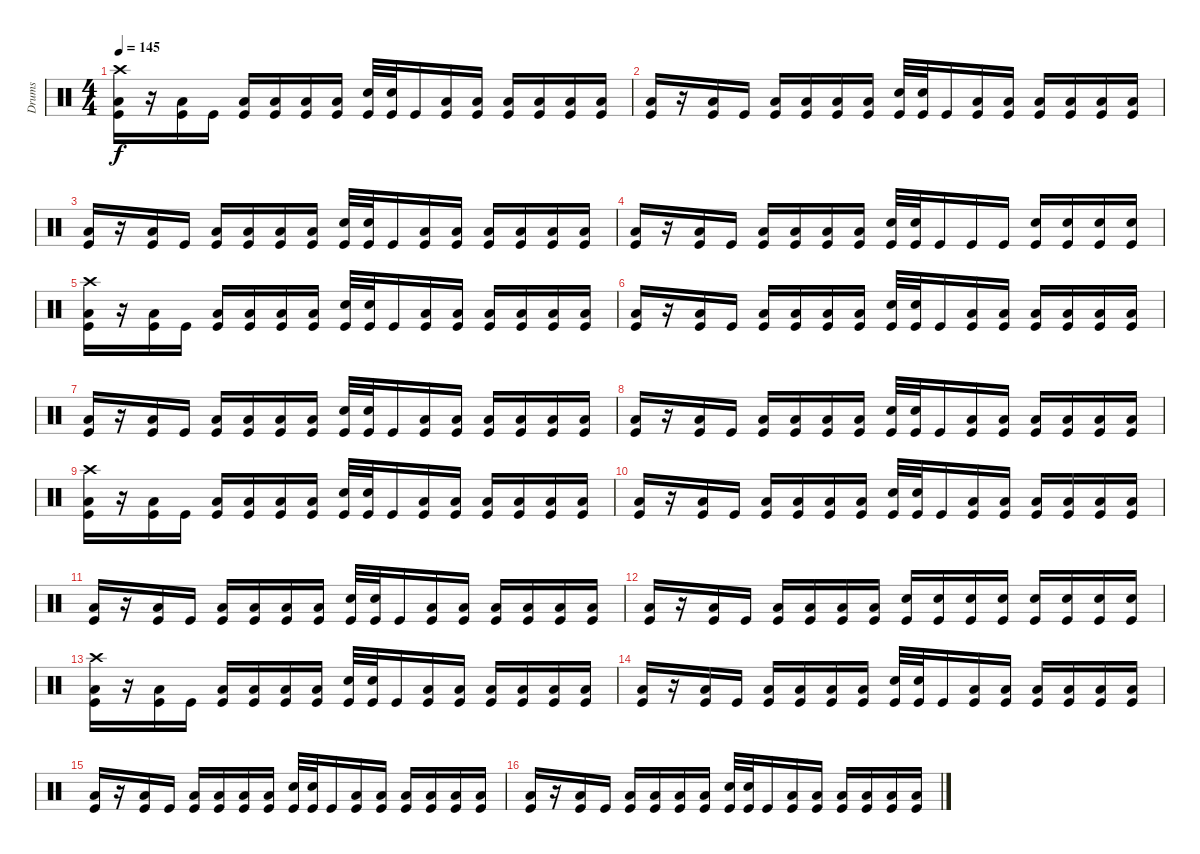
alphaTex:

\track ("Drums" "Drums") {instrument percussion}
\staff {score}
\articulation defaults
\ts (4 4)
\tempo 145
\clef neutral
\ks c
("Crash high (hit)" "Low Tom (hit)" "Kick (hit)").16{dy f} r.16 ("Low Tom (hit)" "Kick (hit)").16 "Kick (hit)".16 ("Low Tom (hit)" "Kick (hit)").16 ("Low Tom (hit)" "Kick (hit)").16 ("Low Tom (hit)" "Kick (hit)").16 ("Low Tom (hit)" "Kick (hit)").16 ("Electric Snare (hit)" "Kick (hit)").32 ("Electric Snare (hit)" "Kick (hit)").32 "Kick (hit)".16 ("Low Tom (hit)" "Kick (hit)").16 ("Low Tom (hit)" "Kick (hit)").16 ("Low Tom (hit)" "Kick (hit)").16 ("Low Tom (hit)" "Kick (hit)").16 ("Low Tom (hit)" "Kick (hit)").16 ("Low Tom (hit)" "Kick (hit)").16 |
("Low Tom (hit)" "Kick (hit)").16 r.16 ("Low Tom (hit)" "Kick (hit)").16 "Kick (hit)".16 ("Low Tom (hit)" "Kick (hit)").16 ("Low Tom (hit)" "Kick (hit)").16 ("Low Tom (hit)" "Kick (hit)").16 ("Low Tom (hit)" "Kick (hit)").16 ("Electric Snare (hit)" "Kick (hit)").32 ("Electric Snare (hit)" "Kick (hit)").32 "Kick (hit)".16 ("Low Tom (hit)" "Kick (hit)").16 ("Low Tom (hit)" "Kick (hit)").16 ("Low Tom (hit)" "Kick (hit)").16 ("Low Tom (hit)" "Kick (hit)").16 ("Low Tom (hit)" "Kick (hit)").16 ("Low Tom (hit)" "Kick (hit)").16 |
("Low Tom (hit)" "Kick (hit)").16 r.16 ("Low Tom (hit)" "Kick (hit)").16 "Kick (hit)".16 ("Low Tom (hit)" "Kick (hit)").16 ("Low Tom (hit)" "Kick (hit)").16 ("Low Tom (hit)" "Kick (hit)").16 ("Low Tom (hit)" "Kick (hit)").16 ("Electric Snare (hit)" "Kick (hit)").32 ("Electric Snare (hit)" "Kick (hit)").32 "Kick (hit)".16 ("Low Tom (hit)" "Kick (hit)").16 ("Low Tom (hit)" "Kick (hit)").16 ("Low Tom (hit)" "Kick (hit)").16 ("Low Tom (hit)" "Kick (hit)").16 ("Low Tom (hit)" "Kick (hit)").16 ("Low Tom (hit)" "Kick (hit)").16 |
("Low Tom (hit)" "Kick (hit)").16 r.16 ("Low Tom (hit)" "Kick (hit)").16 "Kick (hit)".16 ("Low Tom (hit)" "Kick (hit)").16 ("Low Tom (hit)" "Kick (hit)").16 ("Low Tom (hit)" "Kick (hit)").16 ("Low Tom (hit)" "Kick (hit)").16 ("Electric Snare (hit)" "Kick (hit)").32 ("Electric Snare (hit)" "Kick (hit)").32 "Kick (hit)".16 "Kick (hit)".16 "Kick (hit)".16 ("Electric Snare (hit)" "Kick (hit)").16 ("Electric Snare (hit)" "Kick (hit)").16 ("Electric Snare (hit)" "Kick (hit)").16 ("Electric Snare (hit)" "Kick (hit)").16 |
("Crash high (hit)" "Low Tom (hit)" "Kick (hit)").16 r.16 ("Low Tom (hit)" "Kick (hit)").16 "Kick (hit)".16 ("Low Tom (hit)" "Kick (hit)").16 ("Low Tom (hit)" "Kick (hit)").16 ("Low Tom (hit)" "Kick (hit)").16 ("Low Tom (hit)" "Kick (hit)").16 ("Electric Snare (hit)" "Kick (hit)").32 ("Electric Snare (hit)" "Kick (hit)").32 "Kick (hit)".16 ("Low Tom (hit)" "Kick (hit)").16 ("Low Tom (hit)" "Kick (hit)").16 ("Low Tom (hit)" "Kick (hit)").16 ("Low Tom (hit)" "Kick (hit)").16 ("Low Tom (hit)" "Kick (hit)").16 ("Low Tom (hit)" "Kick (hit)").16 |
("Low Tom (hit)" "Kick (hit)").16 r.16 ("Low Tom (hit)" "Kick (hit)").16 "Kick (hit)".16 ("Low Tom (hit)" "Kick (hit)").16 ("Low Tom (hit)" "Kick (hit)").16 ("Low Tom (hit)" "Kick (hit)").16 ("Low Tom (hit)" "Kick (hit)").16 ("Electric Snare (hit)" "Kick (hit)").32 ("Electric Snare (hit)" "Kick (hit)").32 "Kick (hit)".16 ("Low Tom (hit)" "Kick (hit)").16 ("Low Tom (hit)" "Kick (hit)").16 ("Low Tom (hit)" "Kick (hit)").16 ("Low Tom (hit)" "Kick (hit)").16 ("Low Tom (hit)" "Kick (hit)").16 ("Low Tom (hit)" "Kick (hit)").16 |
("Low Tom (hit)" "Kick (hit)").16 r.16 ("Low Tom (hit)" "Kick (hit)").16 "Kick (hit)".16 ("Low Tom (hit)" "Kick (hit)").16 ("Low Tom (hit)" "Kick (hit)").16 ("Low Tom (hit)" "Kick (hit)").16 ("Low Tom (hit)" "Kick (hit)").16 ("Electric Snare (hit)" "Kick (hit)").32 ("Electric Snare (hit)" "Kick (hit)").32 "Kick (hit)".16 ("Low Tom (hit)" "Kick (hit)").16 ("Low Tom (hit)" "Kick (hit)").16 ("Low Tom (hit)" "Kick (hit)").16 ("Low Tom (hit)" "Kick (hit)").16 ("Low Tom (hit)" "Kick (hit)").16 ("Low Tom (hit)" "Kick (hit)").16 |
("Low Tom (hit)" "Kick (hit)").16 r.16 ("Low Tom (hit)" "Kick (hit)").16 "Kick (hit)".16 ("Low Tom (hit)" "Kick (hit)").16 ("Low Tom (hit)" "Kick (hit)").16 ("Low Tom (hit)" "Kick (hit)").16 ("Low Tom (hit)" "Kick (hit)").16 ("Electric Snare (hit)" "Kick (hit)").32 ("Electric Snare (hit)" "Kick (hit)").32 "Kick (hit)".16 ("Low Tom (hit)" "Kick (hit)").16 ("Low Tom (hit)" "Kick (hit)").16 ("Low Tom (hit)" "Kick (hit)").16 ("Low Tom (hit)" "Kick (hit)").16 ("Low Tom (hit)" "Kick (hit)").16 ("Low Tom (hit)" "Kick (hit)").16 |
("Crash high (hit)" "Low Tom (hit)" "Kick (hit)").16 r.16 ("Low Tom (hit)" "Kick (hit)").16 "Kick (hit)".16 ("Low Tom (hit)" "Kick (hit)").16 ("Low Tom (hit)" "Kick (hit)").16 ("Low Tom (hit)" "Kick (hit)").16 ("Low Tom (hit)" "Kick (hit)").16 ("Electric Snare (hit)" "Kick (hit)").32 ("Electric Snare (hit)" "Kick (hit)").32 "Kick (hit)".16 ("Low Tom (hit)" "Kick (hit)").16 ("Low Tom (hit)" "Kick (hit)").16 ("Low Tom (hit)" "Kick (hit)").16 ("Low Tom (hit)" "Kick (hit)").16 ("Low Tom (hit)" "Kick (hit)").16 ("Low Tom (hit)" "Kick (hit)").16 |
("Low Tom (hit)" "Kick (hit)").16 r.16 ("Low Tom (hit)" "Kick (hit)").16 "Kick (hit)".16 ("Low Tom (hit)" "Kick (hit)").16 ("Low Tom (hit)" "Kick (hit)").16 ("Low Tom (hit)" "Kick (hit)").16 ("Low Tom (hit)" "Kick (hit)").16 ("Electric Snare (hit)" "Kick (hit)").32 ("Electric Snare (hit)" "Kick (hit)").32 "Kick (hit)".16 ("Low Tom (hit)" "Kick (hit)").16 ("Low Tom (hit)" "Kick (hit)").16 ("Low Tom (hit)" "Kick (hit)").16 ("Low Tom (hit)" "Kick (hit)").16 ("Low Tom (hit)" "Kick (hit)").16 ("Low Tom (hit)" "Kick (hit)").16 |
("Low Tom (hit)" "Kick (hit)").16 r.16 ("Low Tom (hit)" "Kick (hit)").16 "Kick (hit)".16 ("Low Tom (hit)" "Kick (hit)").16 ("Low Tom (hit)" "Kick (hit)").16 ("Low Tom (hit)" "Kick (hit)").16 ("Low Tom (hit)" "Kick (hit)").16 ("Electric Snare (hit)" "Kick (hit)").32 ("Electric Snare (hit)" "Kick (hit)").32 "Kick (hit)".16 ("Low Tom (hit)" "Kick (hit)").16 ("Low Tom (hit)" "Kick (hit)").16 ("Low Tom (hit)" "Kick (hit)").16 ("Low Tom (hit)" "Kick (hit)").16 ("Low Tom (hit)" "Kick (hit)").16 ("Low Tom (hit)" "Kick (hit)").16 |
("Low Tom (hit)" "Kick (hit)").16 r.16 ("Low Tom (hit)" "Kick (hit)").16 "Kick (hit)".16 ("Low Tom (hit)" "Kick (hit)").16 ("Low Tom (hit)" "Kick (hit)").16 ("Low Tom (hit)" "Kick (hit)").16 ("Low Tom (hit)" "Kick (hit)").16 ("Electric Snare (hit)" "Kick (hit)").16 ("Electric Snare (hit)" "Kick (hit)").16 ("Electric Snare (hit)" "Kick (hit)").16 ("Electric Snare (hit)" "Kick (hit)").16 ("Electric Snare (hit)" "Kick (hit)").16 ("Electric Snare (hit)" "Kick (hit)").16 ("Electric Snare (hit)" "Kick (hit)").16 ("Electric Snare (hit)" "Kick (hit)").16 |
("Crash high (hit)" "Low Tom (hit)" "Kick (hit)").16 r.16 ("Low Tom (hit)" "Kick (hit)").16 "Kick (hit)".16 ("Low Tom (hit)" "Kick (hit)").16 ("Low Tom (hit)" "Kick (hit)").16 ("Low Tom (hit)" "Kick (hit)").16 ("Low Tom (hit)" "Kick (hit)").16 ("Electric Snare (hit)" "Kick (hit)").32 ("Electric Snare (hit)" "Kick (hit)").32 "Kick (hit)".16 ("Low Tom (hit)" "Kick (hit)").16 ("Low Tom (hit)" "Kick (hit)").16 ("Low Tom (hit)" "Kick (hit)").16 ("Low Tom (hit)" "Kick (hit)").16 ("Low Tom (hit)" "Kick (hit)").16 ("Low Tom (hit)" "Kick (hit)").16 |
("Low Tom (hit)" "Kick (hit)").16 r.16 ("Low Tom (hit)" "Kick (hit)").16 "Kick (hit)".16 ("Low Tom (hit)" "Kick (hit)").16 ("Low Tom (hit)" "Kick (hit)").16 ("Low Tom (hit)" "Kick (hit)").16 ("Low Tom (hit)" "Kick (hit)").16 ("Electric Snare (hit)" "Kick (hit)").32 ("Electric Snare (hit)" "Kick (hit)").32 "Kick (hit)".16 ("Low Tom (hit)" "Kick (hit)").16 ("Low Tom (hit)" "Kick (hit)").16 ("Low Tom (hit)" "Kick (hit)").16 ("Low Tom (hit)" "Kick (hit)").16 ("Low Tom (hit)" "Kick (hit)").16 ("Low Tom (hit)" "Kick (hit)").16 |
("Low Tom (hit)" "Kick (hit)").16 r.16 ("Low Tom (hit)" "Kick (hit)").16 "Kick (hit)".16 ("Low Tom (hit)" "Kick (hit)").16 ("Low Tom (hit)" "Kick (hit)").16 ("Low Tom (hit)" "Kick (hit)").16 ("Low Tom (hit)" "Kick (hit)").16 ("Electric Snare (hit)" "Kick (hit)").32 ("Electric Snare (hit)" "Kick (hit)").32 "Kick (hit)".16 ("Low Tom (hit)" "Kick (hit)").16 ("Low Tom (hit)" "Kick (hit)").16 ("Low Tom (hit)" "Kick (hit)").16 ("Low Tom (hit)" "Kick (hit)").16 ("Low Tom (hit)" "Kick (hit)").16 ("Low Tom (hit)" "Kick (hit)").16 |
("Low Tom (hit)" "Kick (hit)").16 r.16 ("Low Tom (hit)" "Kick (hit)").16 "Kick (hit)".16 ("Low Tom (hit)" "Kick (hit)").16 ("Low Tom (hit)" "Kick (hit)").16 ("Low Tom (hit)" "Kick (hit)").16 ("Low Tom (hit)" "Kick (hit)").16 ("Electric Snare (hit)" "Kick (hit)").32 ("Electric Snare (hit)" "Kick (hit)").32 "Kick (hit)".16 ("Low Tom (hit)" "Kick (hit)").16 ("Low Tom (hit)" "Kick (hit)").16 ("Low Tom (hit)" "Kick (hit)").16 ("Low Tom (hit)" "Kick (hit)").16 ("Low Tom (hit)" "Kick (hit)").16 ("Low Tom (hit)" "Kick (hit)").16
